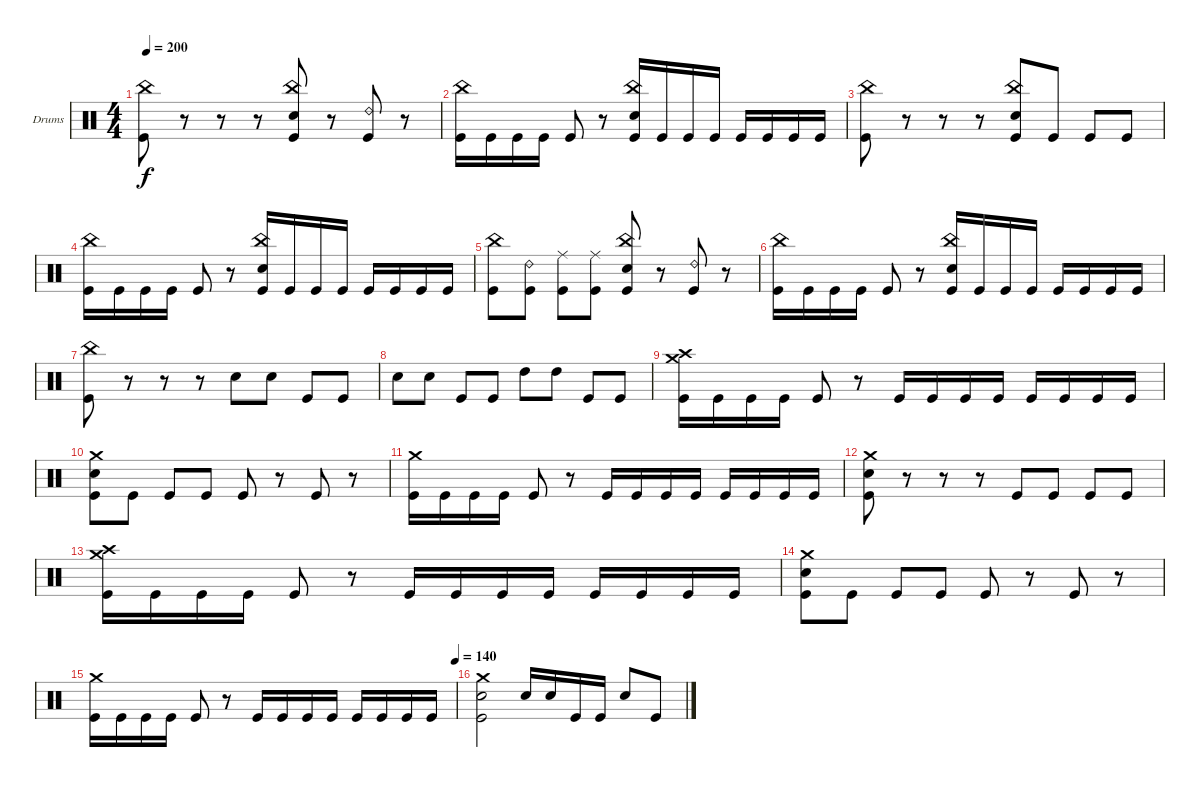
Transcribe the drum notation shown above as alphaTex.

\bracketExtendMode groupsimilarinstruments
\firstSystemTrackNameOrientation horizontal
\otherSystemsTrackNameOrientation horizontal
\track ("Drumkit" "Drums") {instrument percussion}
\staff {score}
\articulation defaults
\ts (4 4)
\tempo 200
\clef neutral
\ks c
("Kick (hit)" "China (hit)").8{dy f} r.8 r.8 r.8 ("Kick (hit)" "Snare (hit) 2" "China (hit)").8 r.8 ("Kick (hit)" "Ride (bell) 2").8 r.8 |
("Kick (hit)" "China (hit)").16 "Kick (hit)".16 "Kick (hit)".16 "Kick (hit)".16 "Kick (hit)".8 r.8 ("Kick (hit)" "Snare (hit) 2" "China (hit)").16 "Kick (hit)".16 "Kick (hit)".16 "Kick (hit)".16 "Kick (hit)".16 "Kick (hit)".16 "Kick (hit)".16 "Kick (hit)".16 |
("Kick (hit)" "China (hit)").8 r.8 r.8 r.8 ("Snare (hit) 2" "Kick (hit)" "China (hit)").8 "Kick (hit)".8 "Kick (hit)".8 "Kick (hit)".8 |
("Kick (hit)" "China (hit)").16 "Kick (hit)".16 "Kick (hit)".16 "Kick (hit)".16 "Kick (hit)".8 r.8 ("Kick (hit)" "Snare (hit) 2" "China (hit)").16 "Kick (hit)".16 "Kick (hit)".16 "Kick (hit)".16 "Kick (hit)".16 "Kick (hit)".16 "Kick (hit)".16 "Kick (hit)".16 |
("Kick (hit)" "China (hit)").8 ("Kick (hit)" "Ride (bell) 2").8 ("Kick (hit)" "Ride (middle)").8 ("Kick (hit)" "Ride (middle)").8 ("Kick (hit)" "Snare (hit) 2" "China (hit)").8 r.8 ("Kick (hit)" "Ride (bell) 2").8 r.8 |
("Kick (hit)" "China (hit)").16 "Kick (hit)".16 "Kick (hit)".16 "Kick (hit)".16 "Kick (hit)".8 r.8 ("Kick (hit)" "Snare (hit) 2" "China (hit)").16 "Kick (hit)".16 "Kick (hit)".16 "Kick (hit)".16 "Kick (hit)".16 "Kick (hit)".16 "Kick (hit)".16 "Kick (hit)".16 |
("Kick (hit)" "China (hit)").8 r.8 r.8 r.8 "Snare (hit) 2".8 "Snare (hit) 2".8 "Kick (hit)".8 "Kick (hit)".8 |
"Snare (hit) 2".8 "Snare (hit) 2".8 "Kick (hit)".8 "Kick (hit)".8 "High Tom (hit)".8 "High Tom (hit)".8 "Kick (hit)".8 "Kick (hit)".8 |
("Kick (hit)" "Crash medium (hit)" "Crash high (hit)").16 "Kick (hit)".16 "Kick (hit)".16 "Kick (hit)".16 "Kick (hit)".8 r.8 "Kick (hit)".16 "Kick (hit)".16 "Kick (hit)".16 "Kick (hit)".16 "Kick (hit)".16 "Kick (hit)".16 "Kick (hit)".16 "Kick (hit)".16 |
("Kick (hit)" "Crash medium (hit)" "Snare (hit) 2").8 "Kick (hit)".8 "Kick (hit)".8 "Kick (hit)".8 "Kick (hit)".8 r.8 "Kick (hit)".8 r.8 |
("Kick (hit)" "Crash medium (hit)").16 "Kick (hit)".16 "Kick (hit)".16 "Kick (hit)".16 "Kick (hit)".8 r.8 "Kick (hit)".16 "Kick (hit)".16 "Kick (hit)".16 "Kick (hit)".16 "Kick (hit)".16 "Kick (hit)".16 "Kick (hit)".16 "Kick (hit)".16 |
("Kick (hit)" "Crash medium (hit)" "Snare (hit) 2").8 r.8 r.8 r.8 "Kick (hit)".8 "Kick (hit)".8 "Kick (hit)".8 "Kick (hit)".8 |
("Kick (hit)" "Crash medium (hit)" "Crash high (hit)").16 "Kick (hit)".16 "Kick (hit)".16 "Kick (hit)".16 "Kick (hit)".8 r.8 "Kick (hit)".16 "Kick (hit)".16 "Kick (hit)".16 "Kick (hit)".16 "Kick (hit)".16 "Kick (hit)".16 "Kick (hit)".16 "Kick (hit)".16 |
("Kick (hit)" "Crash medium (hit)" "Snare (hit) 2").8 "Kick (hit)".8 "Kick (hit)".8 "Kick (hit)".8 "Kick (hit)".8 r.8 "Kick (hit)".8 r.8 |
\tempo (140 1)
("Kick (hit)" "Crash medium (hit)").16 "Kick (hit)".16 "Kick (hit)".16 "Kick (hit)".16 "Kick (hit)".8 r.8 "Kick (hit)".16 "Kick (hit)".16 "Kick (hit)".16 "Kick (hit)".16 "Kick (hit)".16 "Kick (hit)".16 "Kick (hit)".16 "Kick (hit)".16 |
("Kick (hit)" "Crash medium (hit)" "Snare (hit) 2").2 "Snare (hit) 2".16 "Snare (hit) 2".16 "Kick (hit)".16 "Kick (hit)".16 "Snare (hit) 2".8 "Kick (hit)".8
